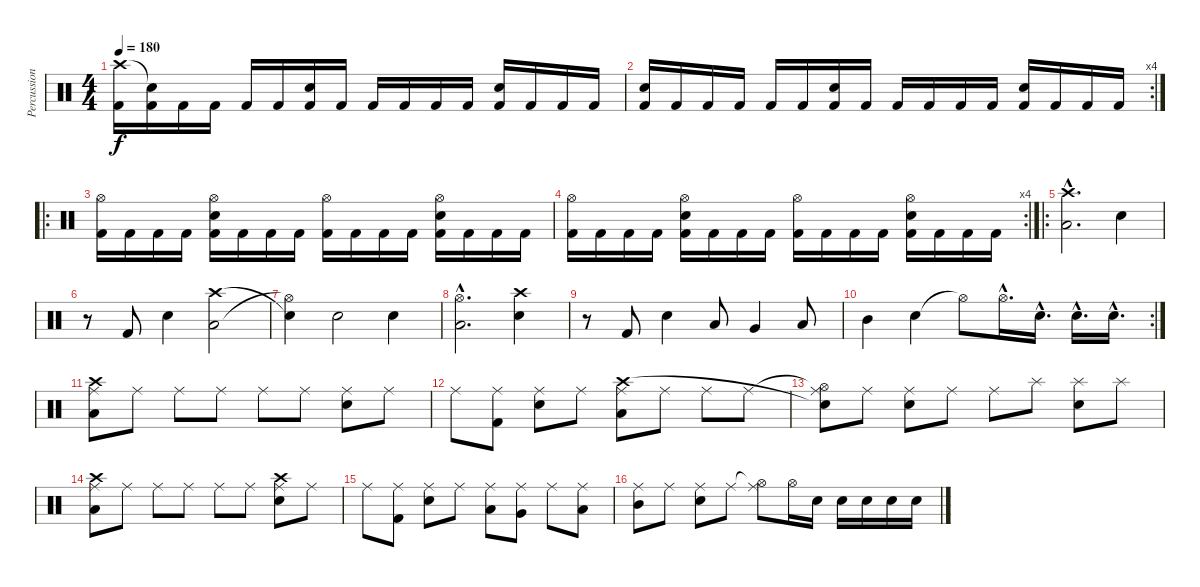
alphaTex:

\track ("Percussions" "Percussion") {instrument percussion}
\staff {score}
\articulation defaults
\ts (4 4)
\tempo 180
\clef neutral
\ks c
("Kick (hit) 2" "Crash high (hit)").16{dy f} ("Kick (hit) 2" "Snare (hit)"{t}).16 "Kick (hit) 2".16 "Kick (hit) 2".16 "Kick (hit) 2".16 "Kick (hit) 2".16 ("Kick (hit) 2" "Electric Snare (hit)").16 "Kick (hit) 2".16 "Kick (hit) 2".16 "Kick (hit) 2".16 "Kick (hit) 2".16 "Kick (hit) 2".16 ("Kick (hit) 2" "Electric Snare (hit)").16 "Kick (hit) 2".16 "Kick (hit) 2".16 "Kick (hit) 2".16 |
\rc 4
("Kick (hit) 2" "Electric Snare (hit)").16 "Kick (hit) 2".16 "Kick (hit) 2".16 "Kick (hit) 2".16 "Kick (hit) 2".16 "Kick (hit) 2".16 ("Kick (hit) 2" "Electric Snare (hit)").16 "Kick (hit) 2".16 "Kick (hit) 2".16 "Kick (hit) 2".16 "Kick (hit) 2".16 "Kick (hit) 2".16 ("Kick (hit) 2" "Electric Snare (hit)").16 "Kick (hit) 2".16 "Kick (hit) 2".16 "Kick (hit) 2".16 |
\ro
("Kick (hit) 2" "Hi-Hat (open)").16 "Kick (hit) 2".16 "Kick (hit) 2".16 "Kick (hit) 2".16 ("Kick (hit) 2" "Electric Snare (hit)" "Hi-Hat (open)").16 "Kick (hit) 2".16 "Kick (hit) 2".16 "Kick (hit) 2".16 ("Kick (hit) 2" "Hi-Hat (open)").16 "Kick (hit) 2".16 "Kick (hit) 2".16 "Kick (hit) 2".16 ("Kick (hit) 2" "Electric Snare (hit)" "Hi-Hat (open)").16 "Kick (hit) 2".16 "Kick (hit) 2".16 "Kick (hit) 2".16 |
\rc 4
("Kick (hit) 2" "Hi-Hat (open)").16 "Kick (hit) 2".16 "Kick (hit) 2".16 "Kick (hit) 2".16 ("Kick (hit) 2" "Electric Snare (hit)" "Hi-Hat (open)").16 "Kick (hit) 2".16 "Kick (hit) 2".16 "Kick (hit) 2".16 ("Kick (hit) 2" "Hi-Hat (open)").16 "Kick (hit) 2".16 "Kick (hit) 2".16 "Kick (hit) 2".16 ("Kick (hit) 2" "Electric Snare (hit)" "Hi-Hat (open)").16 "Kick (hit) 2".16 "Kick (hit) 2".16 "Kick (hit) 2".16 |
\ro
("Low Tom (hit)"{hac} "Crash high (hit)"{hac}).2{d} "Snare (hit) 2".4 |
r.8 "Kick (hit) 2".8 "Snare (hit) 2".4 ("Low Tom (hit)" "Crash high (hit)").2 |
("Hi-Hat (open)"{t} "Snare (hit)"{t}).4 "Snare (hit) 2".2 "Snare (hit) 2".4 |
("Low Tom (hit)"{hac} "Hi-Hat (open)"{hac}).2{d} ("Snare (hit) 2" "Crash high (hit)").4 |
r.8 "Kick (hit) 2".8 "Snare (hit) 2".4 "Low Tom (hit)".8 "Very Low Tom (hit)".4 "Low Tom (hit)".8 |
\rc 2 "Mid Tom (hit)".4 "Snare (hit) 2".4 "Hi-Hat (open)"{t}.8 "Hi-Hat (open)"{hac}.16{d} "Snare (hit) 2"{hac}.16{d} "Snare (hit) 2"{hac}.16{d} "Snare (hit) 2"{hac}.16{d}
|
("Low Tom (hit)" "Crash high (hit)" "Ride (middle)").8 "Ride (middle)".8 "Ride (middle)".8 "Ride (middle)".8 "Ride (middle)".8 "Ride (middle)".8 ("Snare (hit) 2" "Ride (middle)").8 "Ride (middle)".8 |
"Ride (middle)".8 ("Kick (hit) 2" "Ride (middle)").8 ("Snare (hit) 2" "Ride (middle)").8 "Ride (middle)".8 ("Low Tom (hit)" "Crash high (hit)" "Ride (middle)").8 "Ride (middle)".8 "Ride (middle)".8 "Ride (middle)".8 |
("Hi-Hat (open)"{t} "Snare (hit)"{t} "Ride (middle)").8 "Ride (middle)".8 ("Snare (hit) 2" "Ride (middle)").8 "Ride (middle)".8 "Ride (middle)".8 "Splash (hit)".8 ("Snare (hit) 2" "Splash (hit)").8 "Splash (hit)".8 |
("Low Tom (hit)" "Crash high (hit)" "Ride (middle)").8 "Ride (middle)".8 "Ride (middle)".8 "Ride (middle)".8 "Ride (middle)".8 "Ride (middle)".8 ("Snare (hit) 2" "Crash high (hit)" "Ride (middle)").8 "Ride (middle)".8 |
"Ride (middle)".8 ("Kick (hit) 2" "Ride (middle)").8 ("Snare (hit) 2" "Ride (middle)").8 "Ride (middle)".8 ("Low Tom (hit)" "Ride (middle)").8 ("Very Low Tom (hit)" "Ride (middle)").8 "Ride (middle)".8 ("Low Tom (hit)" "Ride (middle)").8 |
("Mid Tom (hit)" "Ride (middle)").8 "Ride (middle)".8 ("Snare (hit) 2" "Ride (middle)").8 "Ride (middle)".8 ("Hi-Hat (open)"{t} "Ride (middle)").8 "Hi-Hat (open)".16 "Snare (hit) 2".16 "Snare (hit) 2".16 "Snare (hit) 2".16 "Snare (hit) 2".16 "Snare (hit) 2".16
